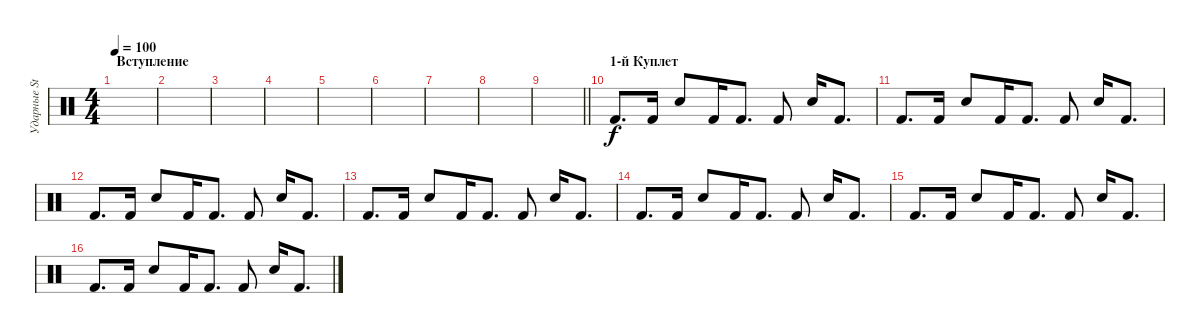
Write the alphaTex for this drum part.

\track ("Ударные Stewart" "Ударные St") {instrument percussion}
\staff {score}
\articulation defaults
\ts (4 4)
\section ("" "Вступление")
\tempo 100
\clef neutral
\ks c
|
|
|
|
|
|
|
|
\barLineRight lightlight
|
\section ("" "1-й Куплет")
"Kick (hit) 2".8{d} "Kick (hit) 2".16 "Electric Snare (hit)".8 "Kick (hit) 2".16 "Kick (hit) 2".8{d} "Kick (hit) 2".8 "Electric Snare (hit)".16 "Kick (hit) 2".8{d} |
"Kick (hit) 2".8{d} "Kick (hit) 2".16 "Electric Snare (hit)".8 "Kick (hit) 2".16 "Kick (hit) 2".8{d} "Kick (hit) 2".8 "Electric Snare (hit)".16 "Kick (hit) 2".8{d} |
"Kick (hit) 2".8{d} "Kick (hit) 2".16 "Electric Snare (hit)".8 "Kick (hit) 2".16 "Kick (hit) 2".8{d} "Kick (hit) 2".8 "Electric Snare (hit)".16 "Kick (hit) 2".8{d} |
"Kick (hit) 2".8{d} "Kick (hit) 2".16 "Electric Snare (hit)".8 "Kick (hit) 2".16 "Kick (hit) 2".8{d} "Kick (hit) 2".8 "Electric Snare (hit)".16 "Kick (hit) 2".8{d} |
"Kick (hit) 2".8{d} "Kick (hit) 2".16 "Electric Snare (hit)".8 "Kick (hit) 2".16 "Kick (hit) 2".8{d} "Kick (hit) 2".8 "Electric Snare (hit)".16 "Kick (hit) 2".8{d} |
"Kick (hit) 2".8{d} "Kick (hit) 2".16 "Electric Snare (hit)".8 "Kick (hit) 2".16 "Kick (hit) 2".8{d} "Kick (hit) 2".8 "Electric Snare (hit)".16 "Kick (hit) 2".8{d} |
"Kick (hit) 2".8{d} "Kick (hit) 2".16 "Electric Snare (hit)".8 "Kick (hit) 2".16 "Kick (hit) 2".8{d} "Kick (hit) 2".8 "Electric Snare (hit)".16 "Kick (hit) 2".8{d}
